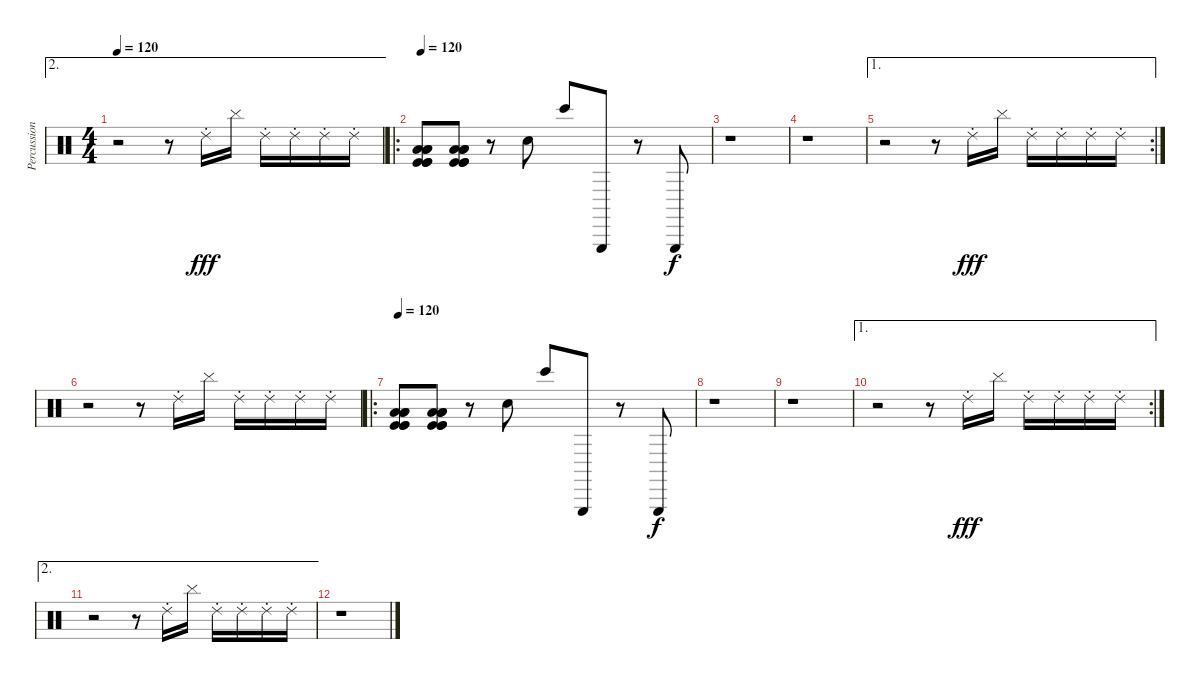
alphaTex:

\track ("Percussion" "Percussion") {instrument percussion}
\staff {score}
\articulation defaults
\ae 2
\ts (4 4)
\tempo 120
\clef neutral
\ks c
r.2{dy fff} r.8 "Ride (choke) 2".16 "Cymbal (hit)".16 "Ride (choke) 2".16 "Ride (choke) 2".16 "Ride (choke) 2".16 "Ride (choke) 2".16 |
\ro
\tempo 120
("Low Floor Tom (hit)" "Low Floor Tom (hit)" "Low Floor Tom (hit)" "Kick (hit)" "Kick (hit)" "Kick (hit)").8 ("Low Floor Tom (hit)" "Low Floor Tom (hit)" "Low Floor Tom (hit)" "Kick (hit)" "Kick (hit)" "Kick (hit)").8 r.8 "Hand Clap (hit)".8 "Bongo High (hit)".8 "Triangle (hit)".8 r.8 "Triangle (hit)".8{dy f} |
r.1 |
r.1 |
\ae 1
\rc 2
r.2 r.8 "Ride (choke) 2".16{dy fff} "Cymbal (hit)".16 "Ride (choke) 2".16 "Ride (choke) 2".16 "Ride (choke) 2".16 "Ride (choke) 2".16 |
r.2{volume 7} r.8 "Ride (choke) 2".16 "Cymbal (hit)".16 "Ride (choke) 2".16 "Ride (choke) 2".16 "Ride (choke) 2".16 "Ride (choke) 2".16 |
\ro
\tempo 120
("Low Floor Tom (hit)" "Low Floor Tom (hit)" "Low Floor Tom (hit)" "Kick (hit)" "Kick (hit)" "Kick (hit)").8 ("Low Floor Tom (hit)" "Low Floor Tom (hit)" "Low Floor Tom (hit)" "Kick (hit)" "Kick (hit)" "Kick (hit)").8 r.8 "Hand Clap (hit)".8 "Bongo High (hit)".8 "Triangle (hit)".8 r.8 "Triangle (hit)".8{dy f} |
r.1 |
r.1 |
\ae 1
\rc 2
r.2 r.8 "Ride (choke) 2".16{dy fff} "Cymbal (hit)".16 "Ride (choke) 2".16{volume 0} "Ride (choke) 2".16 "Ride (choke) 2".16 "Ride (choke) 2".16 |
\ae 2
r.2{volume 0} r.8 "Ride (choke) 2".16 "Cymbal (hit)".16 "Ride (choke) 2".16 "Ride (choke) 2".16 "Ride (choke) 2".16 "Ride (choke) 2".16 |
r.1
